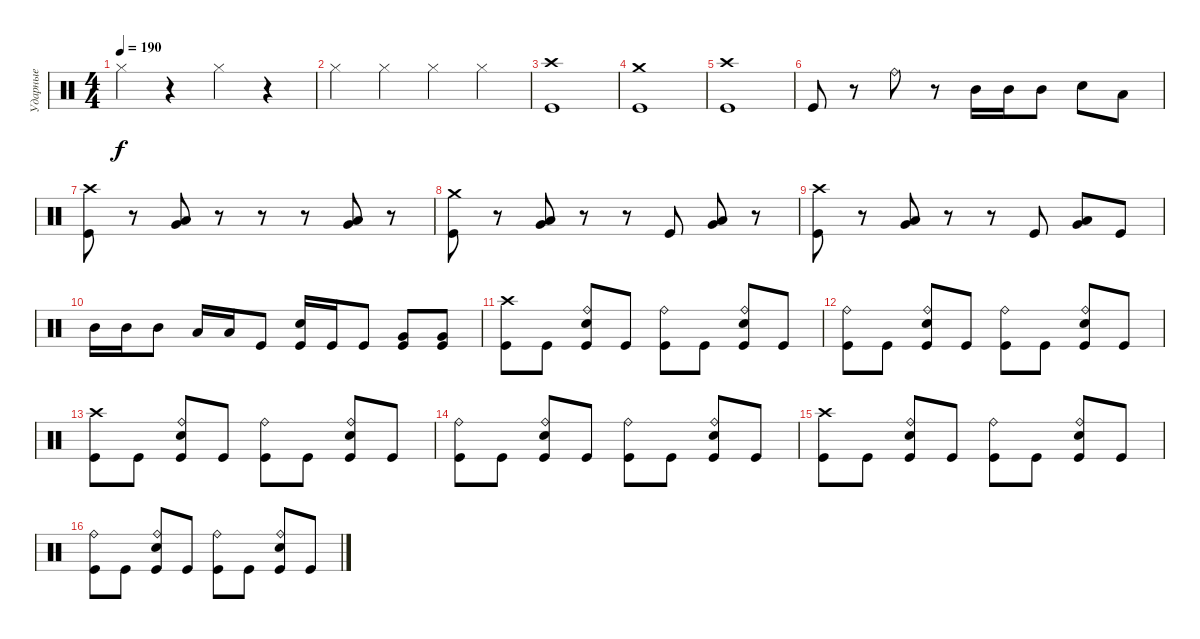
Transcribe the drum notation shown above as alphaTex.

\track ("Ударные" "Ударные") {instrument percussion}
\staff {score}
\articulation defaults
\ts (4 4)
\tempo 190
\clef neutral
\ks c "Hi-Hat (closed)".4{dy f}
r.4 "Hi-Hat (closed)".4 r.4 |
"Hi-Hat (closed)".4 "Hi-Hat (closed)".4 "Hi-Hat (closed)".4 "Hi-Hat (closed)".4 |
("Crash high (hit)" "Kick (hit)").1 |
("Crash medium (hit)" "Kick (hit)").1 |
("Crash high (hit)" "Kick (hit)").1 |
"Kick (hit)".8 r.8 "Ride (bell)".8 r.8 "Mid Tom (hit)".16 "Mid Tom (hit)".16 "Mid Tom (hit)".8 "Electric Snare (hit)".8 "Low Tom (hit)".8 |
("Crash high (hit)" "Kick (hit)").8 r.8 ("Very Low Tom (hit)" "Low Tom (hit)").8 r.8 r.8 r.8 ("Very Low Tom (hit)" "Low Tom (hit)").8 r.8 |
("Crash medium (hit)" "Kick (hit)").8 r.8 ("Very Low Tom (hit)" "Low Tom (hit)").8 r.8 r.8 "Kick (hit)".8 ("Very Low Tom (hit)" "Low Tom (hit)").8 r.8 |
("Crash high (hit)" "Kick (hit)").8 r.8 ("Very Low Tom (hit)" "Low Tom (hit)").8 r.8 r.8 "Kick (hit)".8 ("Very Low Tom (hit)" "Low Tom (hit)").8 "Kick (hit)".8 |
"Mid Tom (hit)".16 "Mid Tom (hit)".16 "Mid Tom (hit)".8 "Low Tom (hit)".16 "Low Tom (hit)".16 "Kick (hit)".8 ("Electric Snare (hit)" "Kick (hit)").16 "Kick (hit)".16 "Kick (hit)".8 ("Very Low Tom (hit)" "Kick (hit)").8 ("Very Low Tom (hit)" "Kick (hit)").8 |
("Crash high (hit)" "Kick (hit)").8 "Kick (hit)".8 ("Ride (bell)" "Electric Snare (hit)" "Kick (hit)").8 "Kick (hit)".8 ("Ride (bell)" "Kick (hit)").8 "Kick (hit)".8 ("Ride (bell)" "Electric Snare (hit)" "Kick (hit)").8 "Kick (hit)".8 |
("Ride (bell)" "Kick (hit)").8 "Kick (hit)".8 ("Ride (bell)" "Electric Snare (hit)" "Kick (hit)").8 "Kick (hit)".8 ("Ride (bell)" "Kick (hit)").8 "Kick (hit)".8 ("Ride (bell)" "Electric Snare (hit)" "Kick (hit)").8 "Kick (hit)".8 |
("Crash high (hit)" "Kick (hit)").8 "Kick (hit)".8 ("Ride (bell)" "Electric Snare (hit)" "Kick (hit)").8 "Kick (hit)".8 ("Ride (bell)" "Kick (hit)").8 "Kick (hit)".8 ("Ride (bell)" "Electric Snare (hit)" "Kick (hit)").8 "Kick (hit)".8 |
("Ride (bell)" "Kick (hit)").8 "Kick (hit)".8 ("Ride (bell)" "Electric Snare (hit)" "Kick (hit)").8 "Kick (hit)".8 ("Ride (bell)" "Kick (hit)").8 "Kick (hit)".8 ("Ride (bell)" "Electric Snare (hit)" "Kick (hit)").8 "Kick (hit)".8 |
("Crash high (hit)" "Kick (hit)").8 "Kick (hit)".8 ("Ride (bell)" "Electric Snare (hit)" "Kick (hit)").8 "Kick (hit)".8 ("Ride (bell)" "Kick (hit)").8 "Kick (hit)".8 ("Ride (bell)" "Electric Snare (hit)" "Kick (hit)").8 "Kick (hit)".8 |
("Ride (bell)" "Kick (hit)").8 "Kick (hit)".8 ("Ride (bell)" "Electric Snare (hit)" "Kick (hit)").8 "Kick (hit)".8 ("Ride (bell)" "Kick (hit)").8 "Kick (hit)".8 ("Ride (bell)" "Electric Snare (hit)" "Kick (hit)").8 "Kick (hit)".8
